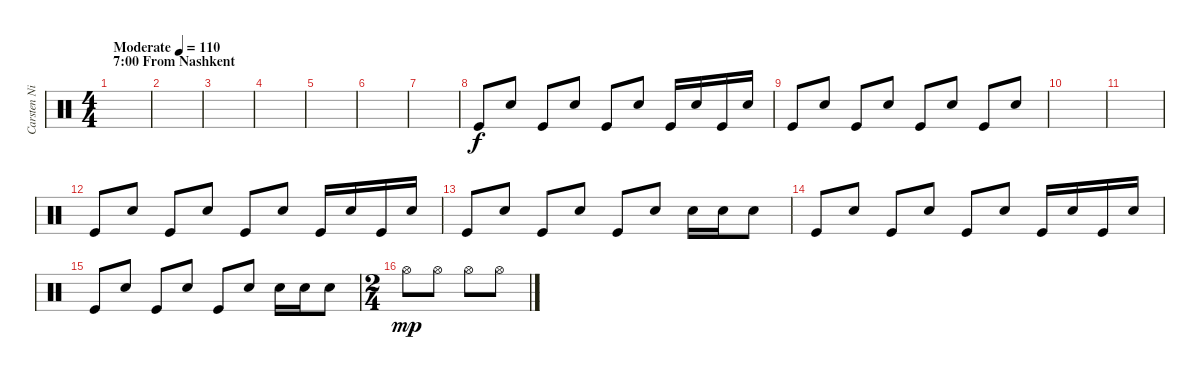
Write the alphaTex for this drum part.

\track ("Carsten Nielsen" "Carsten Ni") {instrument percussion}
\staff {score}
\articulation defaults
\ts (4 4)
\section ("" "7:00 From Nashkent")
\tempo (110 "Moderate")
\clef neutral
\ks c
|
|
|
|
|
|
|
"Kick (hit)".8 "Snare (hit) 2".8 "Kick (hit)".8 "Snare (hit) 2".8 "Kick (hit)".8 "Snare (hit) 2".8 "Kick (hit)".16 "Snare (hit) 2".16 "Kick (hit)".16 "Snare (hit) 2".16 |
"Kick (hit)".8 "Snare (hit) 2".8 "Kick (hit)".8 "Snare (hit) 2".8 "Kick (hit)".8 "Snare (hit) 2".8 "Kick (hit)".8 "Snare (hit) 2".8 |
|
|
"Kick (hit)".8 "Snare (hit) 2".8 "Kick (hit)".8 "Snare (hit) 2".8 "Kick (hit)".8 "Snare (hit) 2".8 "Kick (hit)".16 "Snare (hit) 2".16 "Kick (hit)".16 "Snare (hit) 2".16 |
"Kick (hit)".8 "Snare (hit) 2".8 "Kick (hit)".8 "Snare (hit) 2".8 "Kick (hit)".8 "Snare (hit) 2".8 "Snare (hit) 2".16 "Snare (hit) 2".16 "Snare (hit) 2".8 |
"Kick (hit)".8 "Snare (hit) 2".8 "Kick (hit)".8 "Snare (hit) 2".8 "Kick (hit)".8 "Snare (hit) 2".8 "Kick (hit)".16 "Snare (hit) 2".16 "Kick (hit)".16 "Snare (hit) 2".16 |
"Kick (hit)".8 "Snare (hit) 2".8 "Kick (hit)".8 "Snare (hit) 2".8 "Kick (hit)".8 "Snare (hit) 2".8 "Snare (hit) 2".16 "Snare (hit) 2".16 "Snare (hit) 2".8 |
\ts (2 4)
"Hi-Hat (open)".8{dy mp} "Hi-Hat (open)".8 "Hi-Hat (open)".8 "Hi-Hat (open)".8
